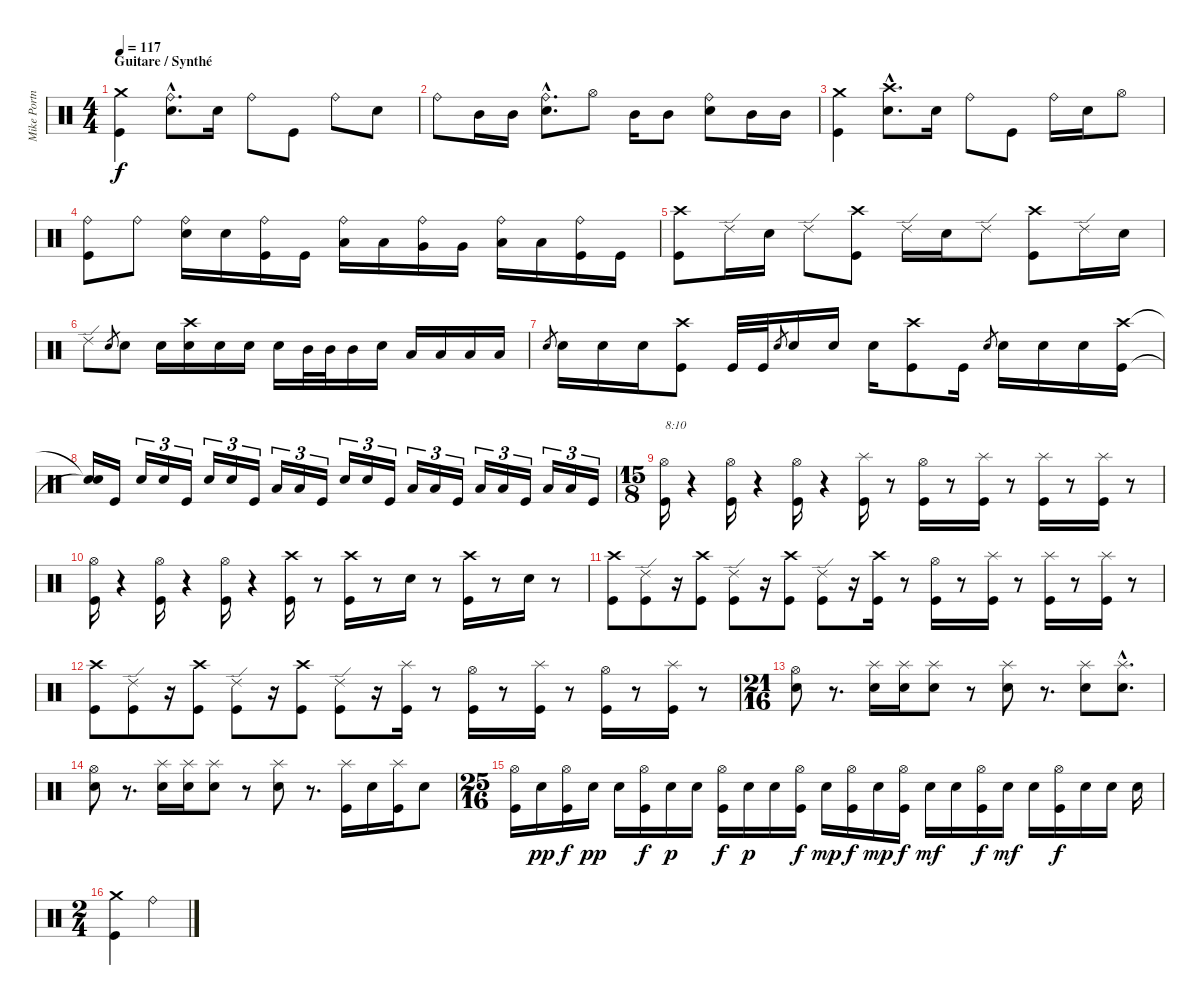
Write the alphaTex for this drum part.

\track ("Mike Portnoy" "Mike Portn") {instrument percussion}
\staff {score}
\articulation defaults
\ts (4 4)
\section ("" "Guitare / Synthé")
\tempo 117
\clef neutral
\ks c
("Crash medium (hit)" "Kick (hit)").4{dy f} ("Ride (bell)"{hac} "Snare (hit) 2"{hac}).8{d} "Snare (hit) 2".16 "Ride (bell)".8 "Kick (hit)".8 "Ride (bell)".8 "Snare (hit) 2".8 |
"Ride (bell)".8 "Mid Tom (hit)".16 "Mid Tom (hit)".16 ("Ride (bell)"{hac} "Snare (hit) 2"{hac}).8{d} "Hi-Hat (open)".8 "Mid Tom (hit)".16 "Mid Tom (hit)".8 ("Ride (bell)" "Snare (hit) 2").8 "Mid Tom (hit)".16 "Mid Tom (hit)".16 |
("Crash medium (hit)" "Kick (hit)").4 ("Crash high (hit)"{hac} "Snare (hit) 2"{hac}).8{d} "Snare (hit) 2".16 "Ride (bell)".8 "Kick (hit)".8 "Ride (bell)".16 "Snare (hit) 2".16 "Hi-Hat (open)".8 |
("Ride (bell)" "Kick (hit)").8 "Ride (bell)".8 ("Ride (bell)" "Snare (hit) 2").16 "Snare (hit) 2".16 ("Ride (bell)" "Kick (hit)").16 "Kick (hit)".16 ("Ride (bell)" "Low Tom (hit)").16 "Low Tom (hit)".16 ("Ride (bell)" "Very Low Tom (hit)").16 "Very Low Tom (hit)".16 ("Ride (bell)" "Low Floor Tom (hit)").16 "Low Floor Tom (hit)".16 ("Ride (bell)" "Kick (hit)").16 "Kick (hit)".16 |
("Crash high (hit)" "Kick (hit)").8 "Ride (edge) 2".16 "Snare (hit) 2".16 "Ride (edge) 2".8 ("Crash high (hit)" "Kick (hit)").8 "Ride (edge) 2".16 "Snare (hit) 2".16 "Ride (edge) 2".8 ("Crash high (hit)" "Kick (hit)").8 "Ride (edge) 2".16 "Snare (hit) 2".16 |
"Ride (edge) 2".8 "Snare (hit) 2".8{gr} "Snare (hit) 2".8 "Snare (hit) 2".16 ("Crash high (hit)" "Snare (hit) 2").16 "Snare (hit) 2".16 "Snare (hit) 2".16 "Snare (hit) 2".16 "Mid Tom (hit)".32 "Mid Tom (hit)".32 "Mid Tom (hit)".16 "Snare (hit) 2".16 "Low Tom (hit)".16 "Low Tom (hit)".16 "Low Tom (hit)".16 "Low Tom (hit)".16 |
"Snare (hit) 2".8{gr} "Snare (hit) 2".16 "Snare (hit) 2".16 "Snare (hit) 2".16 ("Crash high (hit)" "Kick (hit)").8 "Kick (hit)".32 "Kick (hit)".32 "Snare (hit) 2".8{gr} "Snare (hit) 2".16 "Snare (hit) 2".16 "Snare (hit) 2".16 ("Crash high (hit)" "Kick (hit)").8 "Kick (hit)".16 "Snare (hit) 2".8{gr} "Snare (hit) 2".16 "Snare (hit) 2".16 "Snare (hit) 2".16 ("Crash high (hit)" "Kick (hit)").16 |
("Snare (hit)"{t} "Snare (hit)"{t}).16 "Kick (hit)".16 "Snare (hit) 2".16{tu (3 2)} "Snare (hit) 2".16{tu (3 2)} "Kick (hit)".16{tu (3 2)} "Snare (hit) 2".16{tu (3 2)} "Snare (hit) 2".16{tu (3 2)} "Kick (hit)".16{tu (3 2)} "Low Tom (hit)".16{tu (3 2)} "Low Tom (hit)".16{tu (3 2)} "Kick (hit)".16{tu (3 2)} "Snare (hit) 2".16{tu (3 2)} "Snare (hit) 2".16{tu (3 2)} "Kick (hit)".16{tu (3 2)} "Low Tom (hit)".16{tu (3 2)} "Low Tom (hit)".16{tu (3 2)} "Kick (hit)".16{tu (3 2)} "Low Tom (hit)".16{tu (3 2)} "Low Tom (hit)".16{tu (3 2)} "Kick (hit)".16{tu (3 2)} "Low Tom (hit)".16{tu (3 2)} "Low Tom (hit)".16{tu (3 2)} "Kick (hit)".16{tu (3 2)} |
\ts (15 8)
("Hi-Hat (open)" "Kick (hit)").16{txt "8:10"} r.4 ("Hi-Hat (open)" "Kick (hit)").16 r.4 ("Hi-Hat (open)" "Kick (hit)").16 r.4 ("Splash (hit)" "Kick (hit)").16 r.8 ("Hi-Hat (open)" "Kick (hit)").16 r.8 ("Splash (hit)" "Kick (hit)").16 r.8 ("Splash (hit)" "Kick (hit)").16 r.8 ("Splash (hit)" "Kick (hit)").16 r.8 |
("Hi-Hat (open)" "Kick (hit)").16 r.4 ("Hi-Hat (open)" "Kick (hit)").16 r.4 ("Hi-Hat (open)" "Kick (hit)").16 r.4 ("Crash high (hit)" "Kick (hit)").16 r.8 ("Crash high (hit)" "Kick (hit)").16 r.8 "Snare (hit) 2".16 r.8 ("Crash high (hit)" "Kick (hit)").16 r.8 "Snare (hit) 2".16 r.8 |
("Crash high (hit)" "Kick (hit)").8 ("Ride (edge) 2" "Kick (hit)").8 r.16 ("Crash high (hit)" "Kick (hit)").8 ("Ride (edge) 2" "Kick (hit)").8 r.16 ("Crash high (hit)" "Kick (hit)").8 ("Ride (edge) 2" "Kick (hit)").8 r.16 ("Crash high (hit)" "Kick (hit)").16 r.8 ("Hi-Hat (open)" "Kick (hit)").16 r.8 ("Splash (hit)" "Kick (hit)").16 r.8 ("Splash (hit)" "Kick (hit)").16 r.8 ("Splash (hit)" "Kick (hit)").16 r.8 |
("Crash high (hit)" "Kick (hit)").8 ("Ride (edge) 2" "Kick (hit)").8 r.16 ("Crash high (hit)" "Kick (hit)").8 ("Ride (edge) 2" "Kick (hit)").8 r.16 ("Crash high (hit)" "Kick (hit)").8 ("Ride (edge) 2" "Kick (hit)").8 r.16 ("Splash (hit)" "Kick (hit)").16 r.8 ("Hi-Hat (open)" "Kick (hit)").16 r.8 ("Splash (hit)" "Kick (hit)").16 r.8 ("Hi-Hat (open)" "Kick (hit)").16 r.8 ("Splash (hit)" "Kick (hit)").16 r.8 |
\ts (21 16)
("Hi-Hat (open)" "Snare (hit) 2").8 r.8{d} ("Splash (hit)" "Snare (hit) 2").16 ("Splash (hit)" "Snare (hit) 2").16 ("Splash (hit)" "Snare (hit) 2").8 r.8 ("Splash (hit)" "Snare (hit) 2").8 r.8{d} ("Splash (hit)" "Snare (hit) 2").8 ("Splash (hit)"{hac} "Snare (hit) 2"{hac}).8{d} |
("Hi-Hat (open)" "Snare (hit) 2").8 r.8{d} ("Splash (hit)" "Snare (hit) 2").16 ("Splash (hit)" "Snare (hit) 2").16 ("Splash (hit)" "Snare (hit) 2").8 r.8 ("Splash (hit)" "Snare (hit) 2").8 r.8{d} ("Splash (hit)" "Kick (hit)").16 "Snare (hit) 2".16 ("Splash (hit)" "Kick (hit)").16 "Snare (hit) 2".8 |
\ts (25 16)
("Hi-Hat (open)" "Kick (hit)").16 "Snare (hit) 2".16{dy pp} ("Hi-Hat (open)" "Kick (hit)").16{dy f} "Snare (hit) 2".16{dy pp} "Snare (hit) 2".16 ("Hi-Hat (open)" "Kick (hit)").16{dy f} "Snare (hit) 2".16{dy p} "Snare (hit) 2".16 ("Hi-Hat (open)" "Kick (hit)").16{dy f} "Snare (hit) 2".16{dy p} "Snare (hit) 2".16 ("Hi-Hat (open)" "Kick (hit)").16{dy f} "Snare (hit) 2".16{dy mp} ("Hi-Hat (open)" "Kick (hit)").16{dy f} "Snare (hit) 2".16{dy mp} ("Hi-Hat (open)" "Kick (hit)").16{dy f} "Snare (hit) 2".16{dy mf} "Snare (hit) 2".16 ("Hi-Hat (open)" "Kick (hit)").16{dy f} "Snare (hit) 2".16{dy mf} "Snare (hit) 2".16 ("Hi-Hat (open)" "Kick (hit)").16{dy f} "Snare (hit) 2".16 "Snare (hit) 2".16 "Snare (hit) 2".16 |
\ts (2 4)
("Crash medium (hit)" "Kick (hit)").4 "Ride (bell)".4
